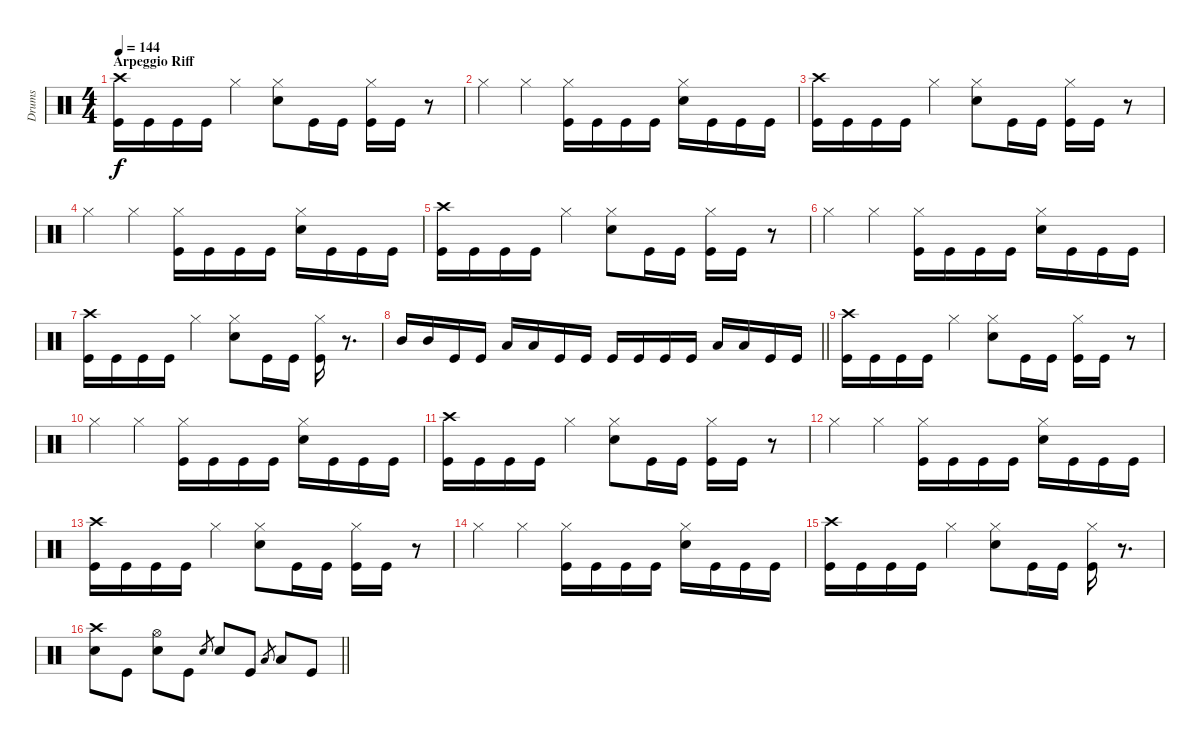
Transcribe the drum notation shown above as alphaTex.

\track ("Drums" "Drums") {instrument percussion}
\staff {score}
\articulation defaults
\ts (4 4)
\section ("" "Arpeggio Riff")
\tempo 144
\clef neutral
\ks c
("Crash high (hit)" "Kick (hit)").16{dy f} "Kick (hit)".16 "Kick (hit)".16 "Kick (hit)".16 "Hi-Hat (closed)".4 ("Hi-Hat (closed)" "Electric Snare (hit)").8 "Kick (hit)".16 "Kick (hit)".16 ("Hi-Hat (closed)" "Kick (hit)").16 "Kick (hit)".16 r.8 |
"Hi-Hat (closed)".4 "Hi-Hat (closed)".4 ("Hi-Hat (closed)" "Kick (hit)").16 "Kick (hit)".16 "Kick (hit)".16 "Kick (hit)".16 ("Hi-Hat (closed)" "Electric Snare (hit)").16 "Kick (hit)".16 "Kick (hit)".16 "Kick (hit)".16 |
("Crash high (hit)" "Kick (hit)").16 "Kick (hit)".16 "Kick (hit)".16 "Kick (hit)".16 "Hi-Hat (closed)".4 ("Hi-Hat (closed)" "Electric Snare (hit)").8 "Kick (hit)".16 "Kick (hit)".16 ("Hi-Hat (closed)" "Kick (hit)").16 "Kick (hit)".16 r.8 |
"Hi-Hat (closed)".4 "Hi-Hat (closed)".4 ("Hi-Hat (closed)" "Kick (hit)").16 "Kick (hit)".16 "Kick (hit)".16 "Kick (hit)".16 ("Hi-Hat (closed)" "Electric Snare (hit)").16 "Kick (hit)".16 "Kick (hit)".16 "Kick (hit)".16 |
("Crash high (hit)" "Kick (hit)").16 "Kick (hit)".16 "Kick (hit)".16 "Kick (hit)".16 "Hi-Hat (closed)".4 ("Hi-Hat (closed)" "Electric Snare (hit)").8 "Kick (hit)".16 "Kick (hit)".16 ("Hi-Hat (closed)" "Kick (hit)").16 "Kick (hit)".16 r.8 |
"Hi-Hat (closed)".4 "Hi-Hat (closed)".4 ("Hi-Hat (closed)" "Kick (hit)").16 "Kick (hit)".16 "Kick (hit)".16 "Kick (hit)".16 ("Hi-Hat (closed)" "Electric Snare (hit)").16 "Kick (hit)".16 "Kick (hit)".16 "Kick (hit)".16 |
("Crash high (hit)" "Kick (hit)").16 "Kick (hit)".16 "Kick (hit)".16 "Kick (hit)".16 "Hi-Hat (closed)".4 ("Hi-Hat (closed)" "Electric Snare (hit)").8 "Kick (hit)".16 "Kick (hit)".16 ("Hi-Hat (closed)" "Kick (hit)").16 r.8{d} |
\barLineRight lightlight "Mid Tom (hit)".16 "Mid Tom (hit)".16 "Kick (hit)".16 "Kick (hit)".16 "Low Tom (hit)".16 "Low Tom (hit)".16 "Kick (hit)".16 "Kick (hit)".16 "Kick (hit)".16 "Kick (hit)".16 "Kick (hit)".16 "Kick (hit)".16 "Low Floor Tom (hit)".16 "Low Floor Tom (hit)".16 "Kick (hit)".16 "Kick (hit)".16
|
\section ("" "")
("Crash high (hit)" "Kick (hit)").16 "Kick (hit)".16 "Kick (hit)".16 "Kick (hit)".16 "Hi-Hat (closed)".4 ("Hi-Hat (closed)" "Electric Snare (hit)").8 "Kick (hit)".16 "Kick (hit)".16 ("Hi-Hat (closed)" "Kick (hit)").16 "Kick (hit)".16 r.8 |
"Hi-Hat (closed)".4 "Hi-Hat (closed)".4 ("Hi-Hat (closed)" "Kick (hit)").16 "Kick (hit)".16 "Kick (hit)".16 "Kick (hit)".16 ("Hi-Hat (closed)" "Electric Snare (hit)").16 "Kick (hit)".16 "Kick (hit)".16 "Kick (hit)".16 |
("Crash high (hit)" "Kick (hit)").16 "Kick (hit)".16 "Kick (hit)".16 "Kick (hit)".16 "Hi-Hat (closed)".4 ("Hi-Hat (closed)" "Electric Snare (hit)").8 "Kick (hit)".16 "Kick (hit)".16 ("Hi-Hat (closed)" "Kick (hit)").16 "Kick (hit)".16 r.8 |
"Hi-Hat (closed)".4 "Hi-Hat (closed)".4 ("Hi-Hat (closed)" "Kick (hit)").16 "Kick (hit)".16 "Kick (hit)".16 "Kick (hit)".16 ("Hi-Hat (closed)" "Electric Snare (hit)").16 "Kick (hit)".16 "Kick (hit)".16 "Kick (hit)".16 |
("Crash high (hit)" "Kick (hit)").16 "Kick (hit)".16 "Kick (hit)".16 "Kick (hit)".16 "Hi-Hat (closed)".4 ("Hi-Hat (closed)" "Electric Snare (hit)").8 "Kick (hit)".16 "Kick (hit)".16 ("Hi-Hat (closed)" "Kick (hit)").16 "Kick (hit)".16 r.8 |
"Hi-Hat (closed)".4 "Hi-Hat (closed)".4 ("Hi-Hat (closed)" "Kick (hit)").16 "Kick (hit)".16 "Kick (hit)".16 "Kick (hit)".16 ("Hi-Hat (closed)" "Electric Snare (hit)").16 "Kick (hit)".16 "Kick (hit)".16 "Kick (hit)".16 |
("Crash high (hit)" "Kick (hit)").16 "Kick (hit)".16 "Kick (hit)".16 "Kick (hit)".16 "Hi-Hat (closed)".4 ("Hi-Hat (closed)" "Electric Snare (hit)").8 "Kick (hit)".16 "Kick (hit)".16 ("Hi-Hat (closed)" "Kick (hit)").16 r.8{d} |
\barLineRight lightlight
("Crash high (hit)" "Electric Snare (hit)").8 "Kick (hit)".8 ("Hi-Hat (open)" "Electric Snare (hit)").8 "Kick (hit)".8 "Electric Snare (hit)".8{gr} "Electric Snare (hit)".8 "Kick (hit)".8 "Low Floor Tom (hit)".8{gr} "Low Floor Tom (hit)".8 "Kick (hit)".8
